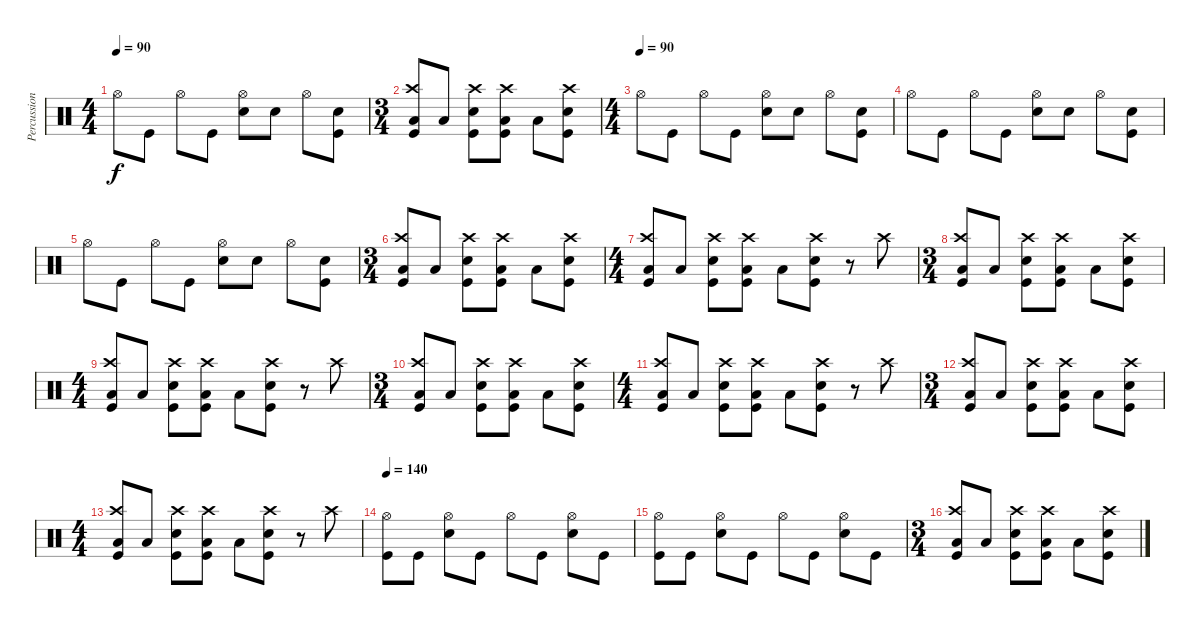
\track ("Percussion" "Percussion") {instrument percussion}
\staff {score}
\articulation defaults
\ts (4 4)
\tempo 90
\clef neutral
\ks c "Hi-Hat (open)".8{dy f} "Kick (hit)".8 "Hi-Hat (open)".8 "Kick (hit)".8
("Hi-Hat (open)" "Snare (hit) 2").8 "Snare (hit) 2".8 "Hi-Hat (open)".8 ("Kick (hit)" "Snare (hit) 2").8 |
\ts (3 4)
("Crash high (hit)" "Low Floor Tom (hit)" "Kick (hit)").8 "Low Floor Tom (hit)".8 ("Crash high (hit)" "Snare (hit) 2" "Kick (hit)").8 ("Crash high (hit)" "Low Floor Tom (hit)" "Kick (hit)").8 "Low Floor Tom (hit)".8 ("Crash high (hit)" "Snare (hit) 2" "Kick (hit)").8 |
\ts (4 4)
\tempo (90)
"Hi-Hat (open)".8 "Kick (hit)".8 "Hi-Hat (open)".8 "Kick (hit)".8 ("Hi-Hat (open)" "Snare (hit) 2").8 "Snare (hit) 2".8 "Hi-Hat (open)".8 ("Kick (hit)" "Snare (hit) 2").8 |
"Hi-Hat (open)".8 "Kick (hit)".8 "Hi-Hat (open)".8 "Kick (hit)".8 ("Hi-Hat (open)" "Snare (hit) 2").8 "Snare (hit) 2".8 "Hi-Hat (open)".8 ("Kick (hit)" "Snare (hit) 2").8 |
"Hi-Hat (open)".8 "Kick (hit)".8 "Hi-Hat (open)".8 "Kick (hit)".8 ("Hi-Hat (open)" "Snare (hit) 2").8 "Snare (hit) 2".8 "Hi-Hat (open)".8 ("Kick (hit)" "Snare (hit) 2").8 |
\ts (3 4)
("Crash high (hit)" "Low Floor Tom (hit)" "Kick (hit)").8 "Low Floor Tom (hit)".8 ("Crash high (hit)" "Snare (hit) 2" "Kick (hit)").8 ("Crash high (hit)" "Low Floor Tom (hit)" "Kick (hit)").8 "Low Floor Tom (hit)".8 ("Crash high (hit)" "Snare (hit) 2" "Kick (hit)").8 |
\ts (4 4)
("Crash high (hit)" "Low Floor Tom (hit)" "Kick (hit)").8 "Low Floor Tom (hit)".8 ("Crash high (hit)" "Snare (hit) 2" "Kick (hit)").8 ("Crash high (hit)" "Low Floor Tom (hit)" "Kick (hit)").8 "Low Floor Tom (hit)".8 ("Crash high (hit)" "Snare (hit) 2" "Kick (hit)").8 r.8 "Crash high (hit)".8 |
\ts (3 4)
("Crash high (hit)" "Low Floor Tom (hit)" "Kick (hit)").8 "Low Floor Tom (hit)".8 ("Crash high (hit)" "Snare (hit) 2" "Kick (hit)").8 ("Crash high (hit)" "Low Floor Tom (hit)" "Kick (hit)").8 "Low Floor Tom (hit)".8 ("Crash high (hit)" "Snare (hit) 2" "Kick (hit)").8 |
\ts (4 4)
("Crash high (hit)" "Low Floor Tom (hit)" "Kick (hit)").8 "Low Floor Tom (hit)".8 ("Crash high (hit)" "Snare (hit) 2" "Kick (hit)").8 ("Crash high (hit)" "Low Floor Tom (hit)" "Kick (hit)").8 "Low Floor Tom (hit)".8 ("Crash high (hit)" "Snare (hit) 2" "Kick (hit)").8 r.8 "Crash high (hit)".8 |
\ts (3 4)
("Crash high (hit)" "Low Floor Tom (hit)" "Kick (hit)").8 "Low Floor Tom (hit)".8 ("Crash high (hit)" "Snare (hit) 2" "Kick (hit)").8 ("Crash high (hit)" "Low Floor Tom (hit)" "Kick (hit)").8 "Low Floor Tom (hit)".8 ("Crash high (hit)" "Snare (hit) 2" "Kick (hit)").8 |
\ts (4 4)
("Crash high (hit)" "Low Floor Tom (hit)" "Kick (hit)").8 "Low Floor Tom (hit)".8 ("Crash high (hit)" "Snare (hit) 2" "Kick (hit)").8 ("Crash high (hit)" "Low Floor Tom (hit)" "Kick (hit)").8 "Low Floor Tom (hit)".8 ("Crash high (hit)" "Snare (hit) 2" "Kick (hit)").8 r.8 "Crash high (hit)".8 |
\ts (3 4)
("Crash high (hit)" "Low Floor Tom (hit)" "Kick (hit)").8 "Low Floor Tom (hit)".8 ("Crash high (hit)" "Snare (hit) 2" "Kick (hit)").8 ("Crash high (hit)" "Low Floor Tom (hit)" "Kick (hit)").8 "Low Floor Tom (hit)".8 ("Crash high (hit)" "Snare (hit) 2" "Kick (hit)").8 |
\ts (4 4)
("Crash high (hit)" "Low Floor Tom (hit)" "Kick (hit)").8 "Low Floor Tom (hit)".8 ("Crash high (hit)" "Snare (hit) 2" "Kick (hit)").8 ("Crash high (hit)" "Low Floor Tom (hit)" "Kick (hit)").8 "Low Floor Tom (hit)".8 ("Crash high (hit)" "Snare (hit) 2" "Kick (hit)").8 r.8 "Crash high (hit)".8 |
\tempo 140
("Hi-Hat (open)" "Kick (hit)").8 "Kick (hit)".8 ("Hi-Hat (open)" "Snare (hit) 2").8 "Kick (hit)".8 "Hi-Hat (open)".8 "Kick (hit)".8 ("Hi-Hat (open)" "Snare (hit) 2").8 "Kick (hit)".8 |
("Hi-Hat (open)" "Kick (hit)").8 "Kick (hit)".8 ("Hi-Hat (open)" "Snare (hit) 2").8 "Kick (hit)".8 "Hi-Hat (open)".8 "Kick (hit)".8 ("Hi-Hat (open)" "Snare (hit) 2").8 "Kick (hit)".8 |
\ts (3 4)
("Crash high (hit)" "Low Floor Tom (hit)" "Kick (hit)").8 "Low Floor Tom (hit)".8 ("Crash high (hit)" "Snare (hit) 2" "Kick (hit)").8 ("Crash high (hit)" "Low Floor Tom (hit)" "Kick (hit)").8 "Low Floor Tom (hit)".8 ("Crash high (hit)" "Snare (hit) 2" "Kick (hit)").8
